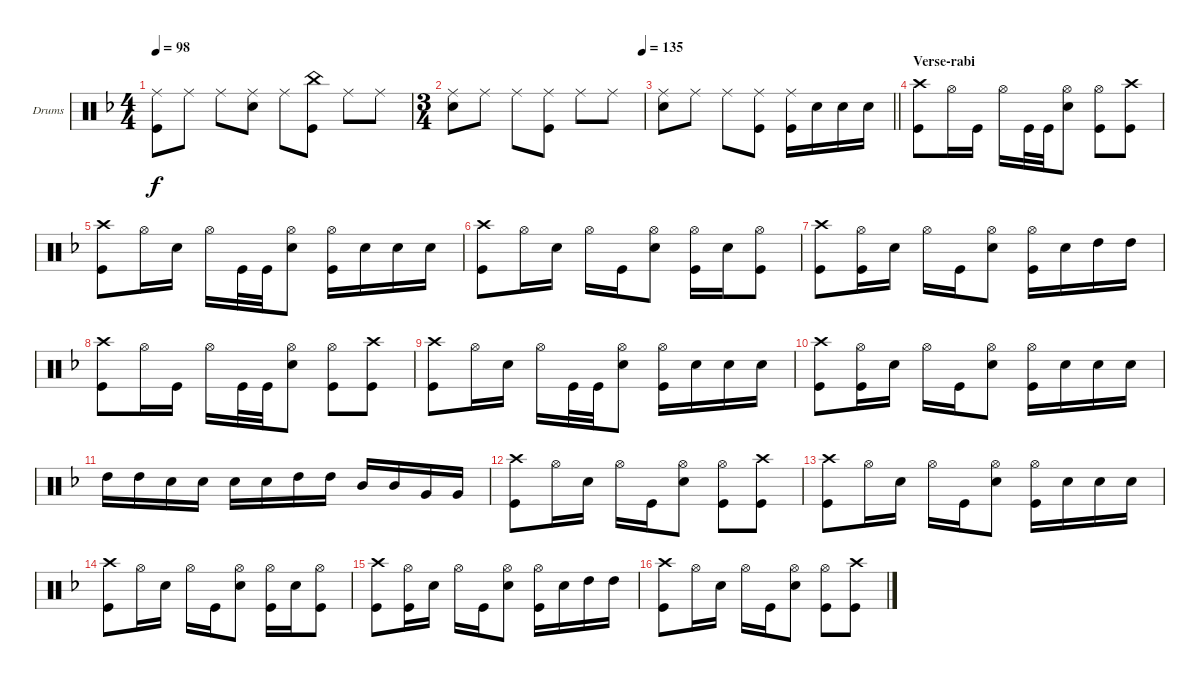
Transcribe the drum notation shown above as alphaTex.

\bracketExtendMode groupsimilarinstruments
\firstSystemTrackNameOrientation horizontal
\otherSystemsTrackNameOrientation horizontal
\track ("drums (Anton Zulganov)" "Drums") {instrument percussion}
\staff {score}
\articulation defaults
\ts (4 4)
\beaming (8 2 2 2 2)
\tempo 98
\clef neutral
\ks dminor
("Ride (middle)" "Kick (hit)").8{dy f} "Ride (middle)".8 "Ride (middle)".8 ("Ride (middle)" "Snare (hit) 2").8 "Ride (middle)".8 ("Kick (hit)" "China (hit)").8 "Ride (middle)".8 "Ride (middle)".8 |
\ts (3 4)
\beaming (8 2 2 2 2)
\tempo (135 0.99375)
("Ride (middle)" "Snare (hit) 2").8 "Ride (middle)".8 "Ride (middle)".8 ("Ride (middle)" "Kick (hit)").8 "Ride (middle)".8 "Ride (middle)".8 |
\barLineRight lightlight
("Ride (middle)" "Snare (hit) 2").8 "Ride (middle)".8 "Ride (middle)".8 ("Ride (middle)" "Kick (hit)").8 ("Ride (middle)" "Kick (hit)").16 "Snare (hit) 2".16 "Snare (hit) 2".16 "Snare (hit) 2".16 |
\section ("" "Verse-rabi")
("Kick (hit)" "Crash high (hit)").8 "Hi-Hat (open)".16 "Kick (hit)".16 "Hi-Hat (open)".16 "Kick (hit)".32 "Kick (hit)".32 ("Snare (hit) 2" "Hi-Hat (open)").8 ("Kick (hit)" "Hi-Hat (open)").8 ("Kick (hit)" "Crash high (hit)").8 |
("Kick (hit)" "Crash high (hit)").8 "Hi-Hat (open)".16 "Snare (hit) 2".16 "Hi-Hat (open)".16 "Kick (hit)".32 "Kick (hit)".32 ("Snare (hit) 2" "Hi-Hat (open)").8 ("Kick (hit)" "Hi-Hat (open)").16 "Snare (hit) 2".16 "Snare (hit) 2".16 "Snare (hit) 2".16 |
("Kick (hit)" "Crash high (hit)").8 "Hi-Hat (open)".16 "Snare (hit) 2".16 "Hi-Hat (open)".16 "Kick (hit)".16 ("Snare (hit) 2" "Hi-Hat (open)").8 ("Kick (hit)" "Hi-Hat (open)").16 "Snare (hit) 2".16 ("Kick (hit)" "Hi-Hat (open)").8 |
("Kick (hit)" "Crash high (hit)").8 ("Kick (hit)" "Hi-Hat (open)").16 "Snare (hit) 2".16 "Hi-Hat (open)".16 "Kick (hit)".16 ("Snare (hit) 2" "Hi-Hat (open)").8 ("Kick (hit)" "Hi-Hat (open)").16 "Snare (hit) 2".16 "High Tom (hit)".16 "High Tom (hit)".16 |
("Kick (hit)" "Crash high (hit)").8 "Hi-Hat (open)".16 "Kick (hit)".16 "Hi-Hat (open)".16 "Kick (hit)".32 "Kick (hit)".32 ("Snare (hit) 2" "Hi-Hat (open)").8 ("Kick (hit)" "Hi-Hat (open)").8 ("Kick (hit)" "Crash high (hit)").8 |
("Kick (hit)" "Crash high (hit)").8 "Hi-Hat (open)".16 "Snare (hit) 2".16 "Hi-Hat (open)".16 "Kick (hit)".32 "Kick (hit)".32 ("Snare (hit) 2" "Hi-Hat (open)").8 ("Kick (hit)" "Hi-Hat (open)").16 "Snare (hit) 2".16 "Snare (hit) 2".16 "Snare (hit) 2".16 |
("Kick (hit)" "Crash high (hit)").8 ("Kick (hit)" "Hi-Hat (open)").16 "Snare (hit) 2".16 "Hi-Hat (open)".16 "Kick (hit)".16 ("Snare (hit) 2" "Hi-Hat (open)").8 ("Kick (hit)" "Hi-Hat (open)").16 "Snare (hit) 2".16 "Snare (hit) 2".16 "Snare (hit) 2".16 |
"High Tom (hit)".16 "High Tom (hit)".16 "Snare (hit) 2".16 "Snare (hit) 2".16 "Snare (hit) 2".16 "Snare (hit) 2".16 "High Tom (hit)".16 "High Tom (hit)".16 "Mid Tom (hit)".16 "Mid Tom (hit)".16 "Very Low Tom (hit)".16 "Very Low Tom (hit)".16 |
("Kick (hit)" "Crash high (hit)").8 "Hi-Hat (open)".16 "Snare (hit) 2".16 "Hi-Hat (open)".16 "Kick (hit)".16 ("Snare (hit) 2" "Hi-Hat (open)").8 ("Kick (hit)" "Hi-Hat (open)").8 ("Kick (hit)" "Crash high (hit)").8 |
("Kick (hit)" "Crash high (hit)").8 "Hi-Hat (open)".16 "Snare (hit) 2".16 "Hi-Hat (open)".16 "Kick (hit)".16 ("Snare (hit) 2" "Hi-Hat (open)").8 ("Kick (hit)" "Hi-Hat (open)").16 "Snare (hit) 2".16 "Snare (hit) 2".16 "Snare (hit) 2".16 |
("Kick (hit)" "Crash high (hit)").8 "Hi-Hat (open)".16 "Snare (hit) 2".16 "Hi-Hat (open)".16 "Kick (hit)".16 ("Snare (hit) 2" "Hi-Hat (open)").8 ("Kick (hit)" "Hi-Hat (open)").16 "Snare (hit) 2".16 ("Hi-Hat (open)" "Kick (hit)").8 |
("Kick (hit)" "Crash high (hit)").8 ("Kick (hit)" "Hi-Hat (open)").16 "Snare (hit) 2".16 "Hi-Hat (open)".16 "Kick (hit)".16 ("Snare (hit) 2" "Hi-Hat (open)").8 ("Kick (hit)" "Hi-Hat (open)").16 "Snare (hit) 2".16 "High Tom (hit)".16 "High Tom (hit)".16 |
("Kick (hit)" "Crash high (hit)").8 "Hi-Hat (open)".16 "Snare (hit) 2".16 "Hi-Hat (open)".16 "Kick (hit)".16 ("Snare (hit) 2" "Hi-Hat (open)").8 ("Kick (hit)" "Hi-Hat (open)").8 ("Kick (hit)" "Crash high (hit)").8
